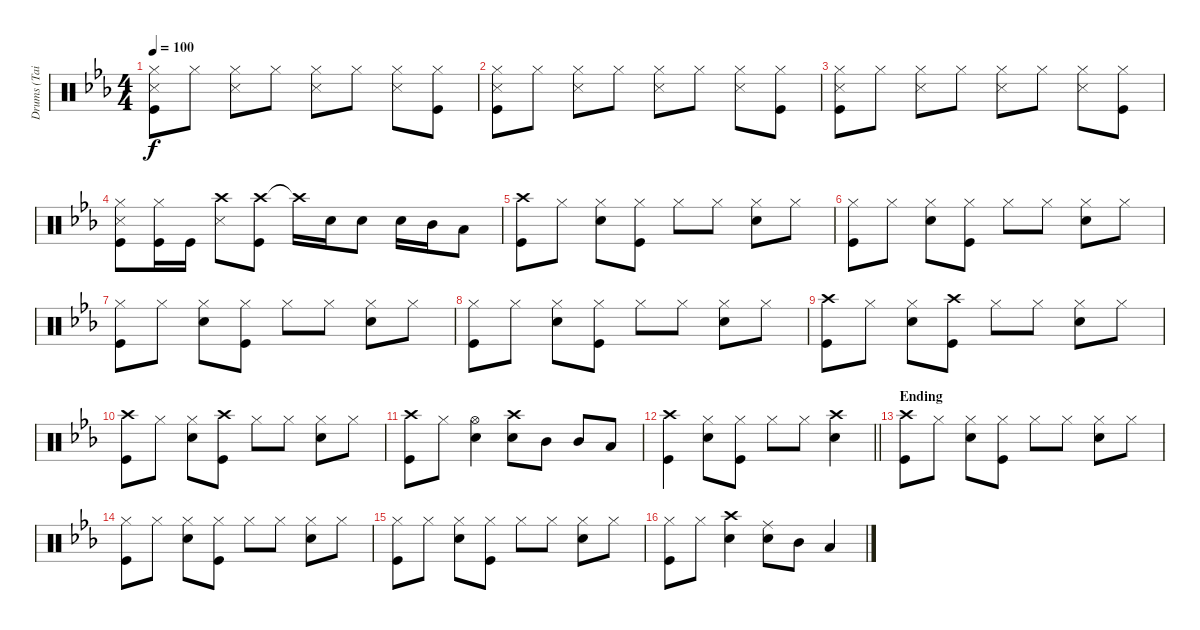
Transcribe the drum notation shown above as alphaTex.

\track ("Drums (Tainaka Ritsu)" "Drums (Tai") {instrument percussion}
\staff {score}
\articulation defaults
\ts (4 4)
\tempo 100
\clef neutral
\ks eb
("Hi-Hat (closed)" "Snare (side stick) 3" "Kick (hit)").8{dy f} "Hi-Hat (closed)".8 ("Hi-Hat (closed)" "Snare (side stick) 3").8 "Hi-Hat (closed)".8 ("Hi-Hat (closed)" "Snare (side stick) 3").8 "Hi-Hat (closed)".8 ("Hi-Hat (closed)" "Snare (side stick) 3").8 ("Hi-Hat (closed)" "Kick (hit)").8 |
("Hi-Hat (closed)" "Snare (side stick) 3" "Kick (hit)").8 "Hi-Hat (closed)".8 ("Hi-Hat (closed)" "Snare (side stick) 3").8 "Hi-Hat (closed)".8 ("Hi-Hat (closed)" "Snare (side stick) 3").8 "Hi-Hat (closed)".8 ("Hi-Hat (closed)" "Snare (side stick) 3").8 ("Hi-Hat (closed)" "Kick (hit)").8 |
("Hi-Hat (closed)" "Snare (side stick) 3" "Kick (hit)").8 "Hi-Hat (closed)".8 ("Hi-Hat (closed)" "Snare (side stick) 3").8 "Hi-Hat (closed)".8 ("Hi-Hat (closed)" "Snare (side stick) 3").8 "Hi-Hat (closed)".8 ("Hi-Hat (closed)" "Snare (side stick) 3").8 ("Hi-Hat (closed)" "Kick (hit)").8 |
("Hi-Hat (closed)" "Snare (side stick) 3" "Kick (hit)").8 ("Hi-Hat (closed)" "Kick (hit)").16 "Kick (hit)".16 ("Crash high (hit)" "Snare (side stick) 3").8 ("Crash high (hit)" "Kick (hit)").8 "Crash high (hit)"{t}.16 "Snare (hit) 2".16 "Snare (hit) 2".8 "Snare (hit) 2".16 "Mid Tom (hit)".16 "Low Tom (hit)".8 |
("Crash high (hit)" "Kick (hit)").8 "Hi-Hat (closed)".8 ("Hi-Hat (closed)" "Snare (hit) 2").8 ("Hi-Hat (closed)" "Kick (hit)").8 "Hi-Hat (closed)".8 "Hi-Hat (closed)".8 ("Hi-Hat (closed)" "Snare (hit) 2").8 "Hi-Hat (closed)".8 |
("Hi-Hat (closed)" "Kick (hit)").8 "Hi-Hat (closed)".8 ("Hi-Hat (closed)" "Snare (hit) 2").8 ("Hi-Hat (closed)" "Kick (hit)").8 "Hi-Hat (closed)".8 "Hi-Hat (closed)".8 ("Hi-Hat (closed)" "Snare (hit) 2").8 "Hi-Hat (closed)".8 |
("Hi-Hat (closed)" "Kick (hit)").8 "Hi-Hat (closed)".8 ("Hi-Hat (closed)" "Snare (hit) 2").8 ("Hi-Hat (closed)" "Kick (hit)").8 "Hi-Hat (closed)".8 "Hi-Hat (closed)".8 ("Hi-Hat (closed)" "Snare (hit) 2").8 "Hi-Hat (closed)".8 |
("Hi-Hat (closed)" "Kick (hit)").8 "Hi-Hat (closed)".8 ("Hi-Hat (closed)" "Snare (hit) 2").8 ("Hi-Hat (closed)" "Kick (hit)").8 "Hi-Hat (closed)".8 "Hi-Hat (closed)".8 ("Hi-Hat (closed)" "Snare (hit) 2").8 "Hi-Hat (closed)".8 |
("Crash high (hit)" "Kick (hit)").8 "Hi-Hat (closed)".8 ("Hi-Hat (closed)" "Snare (hit) 2").8 ("Crash high (hit)" "Kick (hit)").8 "Hi-Hat (closed)".8 "Hi-Hat (closed)".8 ("Hi-Hat (closed)" "Snare (hit) 2").8 "Hi-Hat (closed)".8 |
("Crash high (hit)" "Kick (hit)").8 "Hi-Hat (closed)".8 ("Hi-Hat (closed)" "Snare (hit) 2").8 ("Crash high (hit)" "Kick (hit)").8 "Hi-Hat (closed)".8 "Hi-Hat (closed)".8 ("Hi-Hat (closed)" "Snare (hit) 2").8 "Hi-Hat (closed)".8 |
("Crash high (hit)" "Kick (hit)").8 "Hi-Hat (closed)".8 ("Hi-Hat (open)" "Snare (hit) 2").4 ("Crash high (hit)" "Snare (hit) 2").8 "Mid Tom (hit)".8 "Mid Tom (hit)".8 "Low Tom (hit)".8 |
\barLineRight lightlight
("Crash high (hit)" "Kick (hit)").4 ("Hi-Hat (closed)" "Snare (hit) 2").8 ("Hi-Hat (closed)" "Kick (hit)").8 "Hi-Hat (closed)".8 "Hi-Hat (closed)".8 ("Crash high (hit)" "Snare (hit) 2").4 |
\section ("" "Ending")
("Crash high (hit)" "Kick (hit)").8 "Hi-Hat (closed)".8 ("Hi-Hat (closed)" "Snare (hit) 2").8 ("Hi-Hat (closed)" "Kick (hit)").8 "Hi-Hat (closed)".8 "Hi-Hat (closed)".8 ("Hi-Hat (closed)" "Snare (hit) 2").8 "Hi-Hat (closed)".8 |
("Hi-Hat (closed)" "Kick (hit)").8 "Hi-Hat (closed)".8 ("Hi-Hat (closed)" "Snare (hit) 2").8 ("Hi-Hat (closed)" "Kick (hit)").8 "Hi-Hat (closed)".8 "Hi-Hat (closed)".8 ("Hi-Hat (closed)" "Snare (hit) 2").8 "Hi-Hat (closed)".8 |
("Hi-Hat (closed)" "Kick (hit)").8 "Hi-Hat (closed)".8 ("Hi-Hat (closed)" "Snare (hit) 2").8 ("Hi-Hat (closed)" "Kick (hit)").8 "Hi-Hat (closed)".8 "Hi-Hat (closed)".8 ("Hi-Hat (closed)" "Snare (hit) 2").8 "Hi-Hat (closed)".8 |
("Hi-Hat (closed)" "Kick (hit)").8 "Hi-Hat (closed)".8 ("Crash high (hit)" "Snare (hit) 2").4 ("Ride (middle)" "Snare (hit) 2").8 "Mid Tom (hit)".8 "Low Tom (hit)".4
